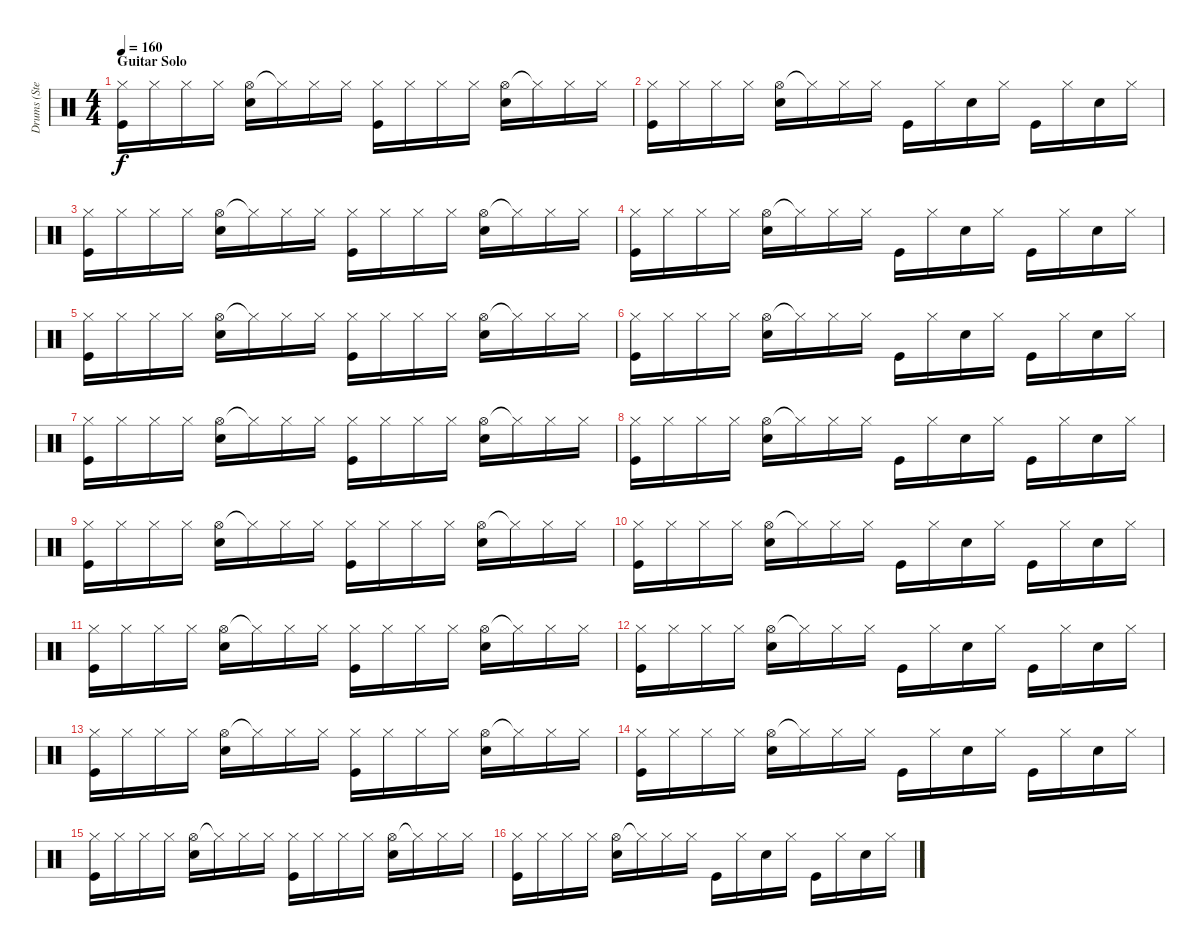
\track ("Drums (Stephen Morris)" "Drums (Ste") {instrument percussion}
\staff {score}
\articulation defaults
\ts (4 4)
\section ("" "Guitar Solo")
\tempo 160
\clef neutral
\ks c
("Hi-Hat (closed)" "Kick (hit)").16{dy f} "Hi-Hat (closed)".16 "Hi-Hat (closed)".16 "Hi-Hat (closed)".16 ("Hi-Hat (open)" "Electric Snare (hit)").16 "Hi-Hat (closed)"{t}.16 "Hi-Hat (closed)".16 "Hi-Hat (closed)".16 ("Hi-Hat (closed)" "Kick (hit)").16 "Hi-Hat (closed)".16 "Hi-Hat (closed)".16 "Hi-Hat (closed)".16 ("Hi-Hat (open)" "Electric Snare (hit)").16 "Hi-Hat (closed)"{t}.16 "Hi-Hat (closed)".16 "Hi-Hat (closed)".16 |
("Hi-Hat (closed)" "Kick (hit)").16 "Hi-Hat (closed)".16 "Hi-Hat (closed)".16 "Hi-Hat (closed)".16 ("Hi-Hat (open)" "Electric Snare (hit)").16 "Hi-Hat (closed)"{t}.16 "Hi-Hat (closed)".16 "Hi-Hat (closed)".16 "Kick (hit)".16 "Hi-Hat (closed)".16 "Electric Snare (hit)".16 "Hi-Hat (closed)".16 "Kick (hit)".16 "Hi-Hat (closed)".16 "Electric Snare (hit)".16 "Hi-Hat (closed)".16 |
("Hi-Hat (closed)" "Kick (hit)").16 "Hi-Hat (closed)".16 "Hi-Hat (closed)".16 "Hi-Hat (closed)".16 ("Hi-Hat (open)" "Electric Snare (hit)").16 "Hi-Hat (closed)"{t}.16 "Hi-Hat (closed)".16 "Hi-Hat (closed)".16 ("Hi-Hat (closed)" "Kick (hit)").16 "Hi-Hat (closed)".16 "Hi-Hat (closed)".16 "Hi-Hat (closed)".16 ("Hi-Hat (open)" "Electric Snare (hit)").16 "Hi-Hat (closed)"{t}.16 "Hi-Hat (closed)".16 "Hi-Hat (closed)".16 |
("Hi-Hat (closed)" "Kick (hit)").16 "Hi-Hat (closed)".16 "Hi-Hat (closed)".16 "Hi-Hat (closed)".16 ("Hi-Hat (open)" "Electric Snare (hit)").16 "Hi-Hat (closed)"{t}.16 "Hi-Hat (closed)".16 "Hi-Hat (closed)".16 "Kick (hit)".16 "Hi-Hat (closed)".16 "Electric Snare (hit)".16 "Hi-Hat (closed)".16 "Kick (hit)".16 "Hi-Hat (closed)".16 "Electric Snare (hit)".16 "Hi-Hat (closed)".16 |
("Hi-Hat (closed)" "Kick (hit)").16 "Hi-Hat (closed)".16 "Hi-Hat (closed)".16 "Hi-Hat (closed)".16 ("Hi-Hat (open)" "Electric Snare (hit)").16 "Hi-Hat (closed)"{t}.16 "Hi-Hat (closed)".16 "Hi-Hat (closed)".16 ("Hi-Hat (closed)" "Kick (hit)").16 "Hi-Hat (closed)".16 "Hi-Hat (closed)".16 "Hi-Hat (closed)".16 ("Hi-Hat (open)" "Electric Snare (hit)").16 "Hi-Hat (closed)"{t}.16 "Hi-Hat (closed)".16 "Hi-Hat (closed)".16 |
("Hi-Hat (closed)" "Kick (hit)").16 "Hi-Hat (closed)".16 "Hi-Hat (closed)".16 "Hi-Hat (closed)".16 ("Hi-Hat (open)" "Electric Snare (hit)").16 "Hi-Hat (closed)"{t}.16 "Hi-Hat (closed)".16 "Hi-Hat (closed)".16 "Kick (hit)".16 "Hi-Hat (closed)".16 "Electric Snare (hit)".16 "Hi-Hat (closed)".16 "Kick (hit)".16 "Hi-Hat (closed)".16 "Electric Snare (hit)".16 "Hi-Hat (closed)".16 |
("Hi-Hat (closed)" "Kick (hit)").16 "Hi-Hat (closed)".16 "Hi-Hat (closed)".16 "Hi-Hat (closed)".16 ("Hi-Hat (open)" "Electric Snare (hit)").16 "Hi-Hat (closed)"{t}.16 "Hi-Hat (closed)".16 "Hi-Hat (closed)".16 ("Hi-Hat (closed)" "Kick (hit)").16 "Hi-Hat (closed)".16 "Hi-Hat (closed)".16 "Hi-Hat (closed)".16 ("Hi-Hat (open)" "Electric Snare (hit)").16 "Hi-Hat (closed)"{t}.16 "Hi-Hat (closed)".16 "Hi-Hat (closed)".16 |
("Hi-Hat (closed)" "Kick (hit)").16 "Hi-Hat (closed)".16 "Hi-Hat (closed)".16 "Hi-Hat (closed)".16 ("Hi-Hat (open)" "Electric Snare (hit)").16 "Hi-Hat (closed)"{t}.16 "Hi-Hat (closed)".16 "Hi-Hat (closed)".16 "Kick (hit)".16 "Hi-Hat (closed)".16 "Electric Snare (hit)".16 "Hi-Hat (closed)".16 "Kick (hit)".16 "Hi-Hat (closed)".16 "Electric Snare (hit)".16 "Hi-Hat (closed)".16 |
("Hi-Hat (closed)" "Kick (hit)").16 "Hi-Hat (closed)".16 "Hi-Hat (closed)".16 "Hi-Hat (closed)".16 ("Hi-Hat (open)" "Electric Snare (hit)").16 "Hi-Hat (closed)"{t}.16 "Hi-Hat (closed)".16 "Hi-Hat (closed)".16 ("Hi-Hat (closed)" "Kick (hit)").16 "Hi-Hat (closed)".16 "Hi-Hat (closed)".16 "Hi-Hat (closed)".16 ("Hi-Hat (open)" "Electric Snare (hit)").16 "Hi-Hat (closed)"{t}.16 "Hi-Hat (closed)".16 "Hi-Hat (closed)".16 |
("Hi-Hat (closed)" "Kick (hit)").16 "Hi-Hat (closed)".16 "Hi-Hat (closed)".16 "Hi-Hat (closed)".16 ("Hi-Hat (open)" "Electric Snare (hit)").16 "Hi-Hat (closed)"{t}.16 "Hi-Hat (closed)".16 "Hi-Hat (closed)".16 "Kick (hit)".16 "Hi-Hat (closed)".16 "Electric Snare (hit)".16 "Hi-Hat (closed)".16 "Kick (hit)".16 "Hi-Hat (closed)".16 "Electric Snare (hit)".16 "Hi-Hat (closed)".16 |
("Hi-Hat (closed)" "Kick (hit)").16 "Hi-Hat (closed)".16 "Hi-Hat (closed)".16 "Hi-Hat (closed)".16 ("Hi-Hat (open)" "Electric Snare (hit)").16 "Hi-Hat (closed)"{t}.16 "Hi-Hat (closed)".16 "Hi-Hat (closed)".16 ("Hi-Hat (closed)" "Kick (hit)").16 "Hi-Hat (closed)".16 "Hi-Hat (closed)".16 "Hi-Hat (closed)".16 ("Hi-Hat (open)" "Electric Snare (hit)").16 "Hi-Hat (closed)"{t}.16 "Hi-Hat (closed)".16 "Hi-Hat (closed)".16 |
("Hi-Hat (closed)" "Kick (hit)").16 "Hi-Hat (closed)".16 "Hi-Hat (closed)".16 "Hi-Hat (closed)".16 ("Hi-Hat (open)" "Electric Snare (hit)").16 "Hi-Hat (closed)"{t}.16 "Hi-Hat (closed)".16 "Hi-Hat (closed)".16 "Kick (hit)".16 "Hi-Hat (closed)".16 "Electric Snare (hit)".16 "Hi-Hat (closed)".16 "Kick (hit)".16 "Hi-Hat (closed)".16 "Electric Snare (hit)".16 "Hi-Hat (closed)".16 |
("Hi-Hat (closed)" "Kick (hit)").16 "Hi-Hat (closed)".16 "Hi-Hat (closed)".16 "Hi-Hat (closed)".16 ("Hi-Hat (open)" "Electric Snare (hit)").16 "Hi-Hat (closed)"{t}.16 "Hi-Hat (closed)".16 "Hi-Hat (closed)".16 ("Hi-Hat (closed)" "Kick (hit)").16 "Hi-Hat (closed)".16 "Hi-Hat (closed)".16 "Hi-Hat (closed)".16 ("Hi-Hat (open)" "Electric Snare (hit)").16 "Hi-Hat (closed)"{t}.16 "Hi-Hat (closed)".16 "Hi-Hat (closed)".16 |
("Hi-Hat (closed)" "Kick (hit)").16 "Hi-Hat (closed)".16 "Hi-Hat (closed)".16 "Hi-Hat (closed)".16 ("Hi-Hat (open)" "Electric Snare (hit)").16 "Hi-Hat (closed)"{t}.16 "Hi-Hat (closed)".16 "Hi-Hat (closed)".16 "Kick (hit)".16 "Hi-Hat (closed)".16 "Electric Snare (hit)".16 "Hi-Hat (closed)".16 "Kick (hit)".16 "Hi-Hat (closed)".16 "Electric Snare (hit)".16 "Hi-Hat (closed)".16 |
("Hi-Hat (closed)" "Kick (hit)").16 "Hi-Hat (closed)".16 "Hi-Hat (closed)".16 "Hi-Hat (closed)".16 ("Hi-Hat (open)" "Electric Snare (hit)").16 "Hi-Hat (closed)"{t}.16 "Hi-Hat (closed)".16 "Hi-Hat (closed)".16 ("Hi-Hat (closed)" "Kick (hit)").16 "Hi-Hat (closed)".16 "Hi-Hat (closed)".16 "Hi-Hat (closed)".16 ("Hi-Hat (open)" "Electric Snare (hit)").16 "Hi-Hat (closed)"{t}.16 "Hi-Hat (closed)".16 "Hi-Hat (closed)".16 |
("Hi-Hat (closed)" "Kick (hit)").16 "Hi-Hat (closed)".16 "Hi-Hat (closed)".16 "Hi-Hat (closed)".16 ("Hi-Hat (open)" "Electric Snare (hit)").16 "Hi-Hat (closed)"{t}.16 "Hi-Hat (closed)".16 "Hi-Hat (closed)".16 "Kick (hit)".16 "Hi-Hat (closed)".16 "Electric Snare (hit)".16 "Hi-Hat (closed)".16 "Kick (hit)".16 "Hi-Hat (closed)".16 "Electric Snare (hit)".16 "Hi-Hat (closed)".16
